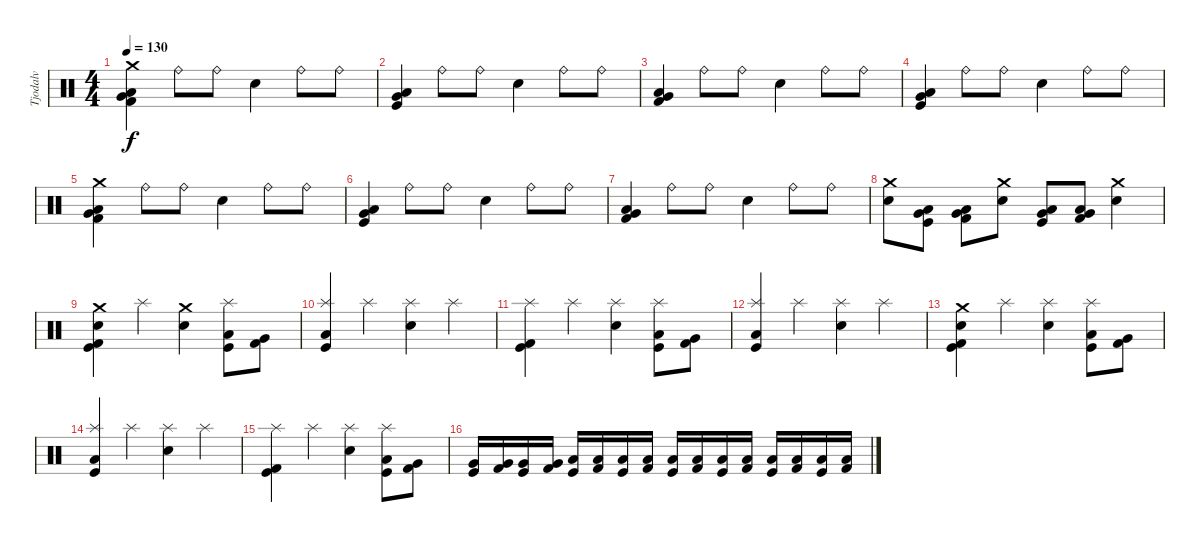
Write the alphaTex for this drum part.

\track ("Tjodalv" "Tjodalv") {instrument percussion}
\staff {score}
\articulation defaults
\ts (4 4)
\tempo 130
\clef neutral
\ks c
("Crash medium (hit)" "Low Floor Tom (hit)" "Very Low Tom (hit)" "Kick (hit) 2").4{dy f} "Ride (bell)".8 "Ride (bell)".8 "Snare (hit) 2".4 "Ride (bell)".8 "Ride (bell)".8 |
("Low Floor Tom (hit)" "Very Low Tom (hit)" "Kick (hit)").4 "Ride (bell)".8 "Ride (bell)".8 "Snare (hit) 2".4 "Ride (bell)".8 "Ride (bell)".8 |
("Low Floor Tom (hit)" "Very Low Tom (hit)" "Kick (hit) 2").4 "Ride (bell)".8 "Ride (bell)".8 "Snare (hit) 2".4 "Ride (bell)".8 "Ride (bell)".8 |
("Low Floor Tom (hit)" "Very Low Tom (hit)" "Kick (hit)").4 "Ride (bell)".8 "Ride (bell)".8 "Snare (hit) 2".4 "Ride (bell)".8 "Ride (bell)".8 |
("Crash medium (hit)" "Low Floor Tom (hit)" "Very Low Tom (hit)" "Kick (hit) 2").4 "Ride (bell)".8 "Ride (bell)".8 "Snare (hit) 2".4 "Ride (bell)".8 "Ride (bell)".8 |
("Low Floor Tom (hit)" "Very Low Tom (hit)" "Kick (hit)").4 "Ride (bell)".8 "Ride (bell)".8 "Snare (hit) 2".4 "Ride (bell)".8 "Ride (bell)".8 |
("Low Floor Tom (hit)" "Very Low Tom (hit)" "Kick (hit) 2").4 "Ride (bell)".8 "Ride (bell)".8 "Snare (hit) 2".4 "Ride (bell)".8 "Ride (bell)".8 |
("Crash medium (hit)" "Snare (hit) 2").8 ("Low Floor Tom (hit)" "Very Low Tom (hit)" "Kick (hit)").8 ("Low Floor Tom (hit)" "Very Low Tom (hit)" "Kick (hit) 2").8 ("Crash medium (hit)" "Snare (hit) 2").8 ("Low Floor Tom (hit)" "Very Low Tom (hit)" "Kick (hit)").8 ("Low Floor Tom (hit)" "Very Low Tom (hit)" "Kick (hit) 2").8 ("Crash medium (hit)" "Snare (hit) 2").4 |
("Crash medium (hit)" "Snare (hit) 2" "Kick (hit)" "Kick (hit) 2").4 "Splash (hit)".4 ("Crash medium (hit)" "Snare (hit) 2").4 ("Splash (hit)" "Kick (hit)" "Low Floor Tom (hit)").8 ("Kick (hit) 2" "Very Low Tom (hit)").8 |
("Splash (hit)" "Low Tom (hit)" "Kick (hit)").4 "Splash (hit)".4 ("Splash (hit)" "Snare (hit) 2").4 "Splash (hit)".4 |
("Splash (hit)" "Kick (hit)" "Kick (hit) 2").4 "Splash (hit)".4 ("Splash (hit)" "Snare (hit) 2").4 ("Splash (hit)" "Kick (hit)" "Low Floor Tom (hit)").8 ("Kick (hit) 2" "Very Low Tom (hit)").8 |
("Splash (hit)" "Kick (hit)" "Low Tom (hit)").4 "Splash (hit)".4 ("Splash (hit)" "Snare (hit) 2").4 "Splash (hit)".4 |
("Crash medium (hit)" "Snare (hit) 2" "Kick (hit)" "Kick (hit) 2").4 "Splash (hit)".4 ("Splash (hit)" "Snare (hit) 2").4 ("Splash (hit)" "Kick (hit)" "Low Floor Tom (hit)").8 ("Kick (hit) 2" "Very Low Tom (hit)").8 |
("Splash (hit)" "Low Tom (hit)" "Kick (hit)").4 "Splash (hit)".4 ("Splash (hit)" "Snare (hit) 2").4 "Splash (hit)".4 |
("Splash (hit)" "Kick (hit)" "Kick (hit) 2").4 "Splash (hit)".4 ("Splash (hit)" "Snare (hit) 2").4 ("Splash (hit)" "Kick (hit)" "Low Floor Tom (hit)").8 ("Kick (hit) 2" "Very Low Tom (hit)").8 |
("Very Low Tom (hit)" "Kick (hit)").16 ("Very Low Tom (hit)" "Kick (hit) 2").16 ("Very Low Tom (hit)" "Kick (hit)").16 ("Very Low Tom (hit)" "Kick (hit) 2").16 ("Low Floor Tom (hit)" "Kick (hit)").16 ("Low Floor Tom (hit)" "Kick (hit) 2").16 ("Low Floor Tom (hit)" "Kick (hit)").16 ("Low Floor Tom (hit)" "Kick (hit) 2").16 ("Low Tom (hit)" "Kick (hit)").16 ("Low Tom (hit)" "Kick (hit) 2").16 ("Low Tom (hit)" "Kick (hit)").16 ("Low Tom (hit)" "Kick (hit) 2").16 ("Low Floor Tom (hit)" "Kick (hit)").16 ("Low Floor Tom (hit)" "Kick (hit) 2").16 ("Low Floor Tom (hit)" "Kick (hit)").16 ("Low Floor Tom (hit)" "Kick (hit) 2").16
